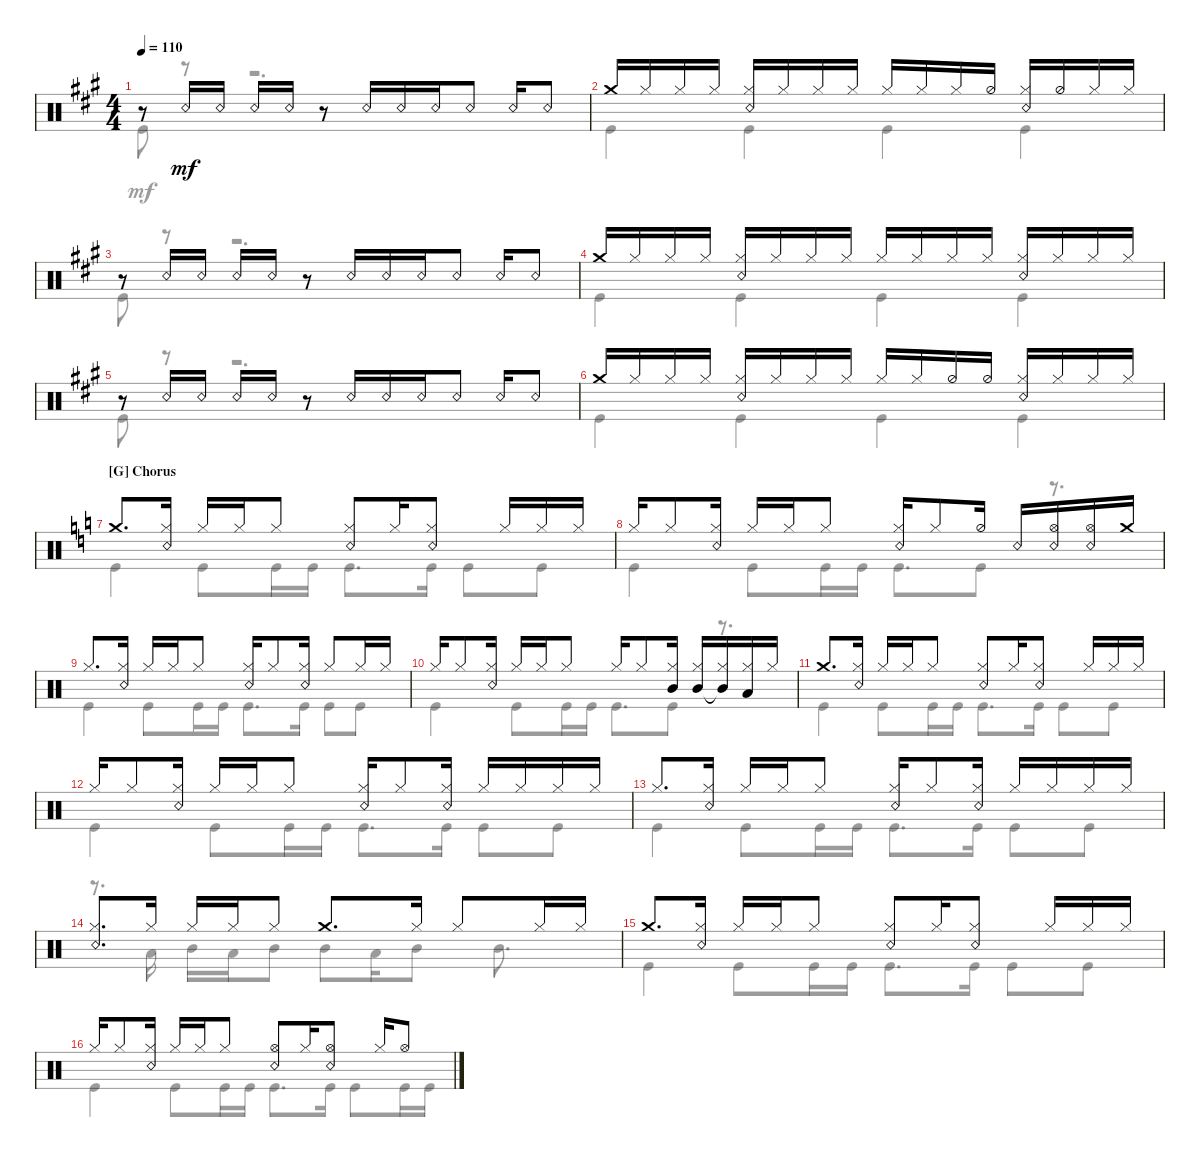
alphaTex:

\defaultSystemsLayout 4
\bracketExtendMode groupsimilarinstruments
\singleTrackTrackNamePolicy hidden
\multiTrackTrackNamePolicy hidden
\firstSystemTrackNameOrientation horizontal
\otherSystemsTrackNameOrientation horizontal
\track ("Максим Удалов" "Drums") {instrument percussion}
\staff {score}
\articulation defaults
\voice
\ts (4 4)
\tempo 110
\clef neutral
\scale
1.02648
\ks a
r.8{dy mf} "Snare (rim shot)".16 "Snare (rim shot)".16 "Snare (rim shot)".16 "Snare (rim shot)".16 r.8 "Snare (rim shot)".16 "Snare (rim shot)".16 "Snare (rim shot)".16 "Snare (rim shot)".8 "Snare (rim shot)".16 "Snare (rim shot)".8 |
\scale
0.973518 "Crash medium (hit)".16 "Hi-Hat (closed)".16 "Hi-Hat (closed)".16 "Hi-Hat (closed)".16 ("Hi-Hat (closed)" "Snare (rim shot)").16 "Hi-Hat (closed)".16 "Hi-Hat (closed)".16 "Hi-Hat (closed)".16 "Hi-Hat (closed)".16 "Hi-Hat (closed)".16 "Hi-Hat (closed)".16 "Hi-Hat (half)".16 ("Hi-Hat (closed)" "Snare (rim shot)").16 "Hi-Hat (half)".16 "Hi-Hat (closed)".16 "Hi-Hat (closed)".16 |
\scale
1.02648 r.8 "Snare (rim shot)".16 "Snare (rim shot)".16 "Snare (rim shot)".16 "Snare (rim shot)".16 r.8 "Snare (rim shot)".16 "Snare (rim shot)".16 "Snare (rim shot)".16 "Snare (rim shot)".8 "Snare (rim shot)".16 "Snare (rim shot)".8 |
\scale
0.973518 "Crash medium (hit)".16 "Hi-Hat (closed)".16 "Hi-Hat (closed)".16 "Hi-Hat (closed)".16 ("Hi-Hat (closed)" "Snare (rim shot)").16 "Hi-Hat (closed)".16 "Hi-Hat (closed)".16 "Hi-Hat (closed)".16 "Hi-Hat (closed)".16 "Hi-Hat (closed)".16 "Hi-Hat (closed)".16 "Hi-Hat (closed)".16 ("Hi-Hat (closed)" "Snare (rim shot)").16 "Hi-Hat (closed)".16 "Hi-Hat (closed)".16 "Hi-Hat (closed)".16 |
\scale
1.02648 r.8 "Snare (rim shot)".16 "Snare (rim shot)".16 "Snare (rim shot)".16 "Snare (rim shot)".16 r.8 "Snare (rim shot)".16 "Snare (rim shot)".16 "Snare (rim shot)".16 "Snare (rim shot)".8 "Snare (rim shot)".16 "Snare (rim shot)".8 |
\scale
0.973518 "Crash medium (hit)".16 "Hi-Hat (closed)".16 "Hi-Hat (closed)".16 "Hi-Hat (closed)".16 ("Hi-Hat (closed)" "Snare (rim shot)").16 "Hi-Hat (closed)".16 "Hi-Hat (closed)".16 "Hi-Hat (closed)".16 "Hi-Hat (closed)".16 "Hi-Hat (closed)".16 "Hi-Hat (half)".16 "Hi-Hat (half)".16 ("Hi-Hat (closed)" "Snare (rim shot)").16 "Hi-Hat (closed)".16 "Hi-Hat (closed)".16 "Hi-Hat (closed)".16 |
\section ("G" "Chorus")
\scale
1.02648
\ks c "Crash medium (hit)".8{d}
("Hi-Hat (closed)" "Snare (rim shot)").16 "Hi-Hat (closed)".16 "Hi-Hat (closed)".16 "Hi-Hat (closed)".8 ("Hi-Hat (closed)" "Snare (rim shot)").8 "Hi-Hat (closed)".16 ("Hi-Hat (closed)" "Snare (rim shot)").8 "Hi-Hat (closed)".16 "Hi-Hat (closed)".16 "Hi-Hat (closed)".16 |
\scale
0.973518 "Hi-Hat (closed)".16 "Hi-Hat (closed)".8 ("Hi-Hat (closed)" "Snare (rim shot)").16 "Hi-Hat (closed)".16 "Hi-Hat (closed)".16 "Hi-Hat (closed)".8 ("Hi-Hat (closed)" "Snare (rim shot)").16 "Hi-Hat (closed)".8 "Hi-Hat (half)".16 "Snare (rim shot)".16 ("Snare (rim shot)" "Hi-Hat (open)").16 ("Snare (rim shot)" "Hi-Hat (open)").16 "Crash medium (hit)".16 |
\scale
1.02648 "Hi-Hat (closed)".8{d} ("Snare (rim shot)" "Hi-Hat (closed)").16 "Hi-Hat (closed)".16 "Hi-Hat (closed)".16 "Hi-Hat (closed)".8 ("Hi-Hat (closed)" "Snare (rim shot)").16 "Hi-Hat (closed)".8 ("Hi-Hat (closed)" "Snare (rim shot)").16 "Hi-Hat (closed)".8 "Hi-Hat (closed)".16 "Hi-Hat (closed)".16 |
\scale
0.973518 "Hi-Hat (closed)".16 "Hi-Hat (closed)".8 ("Snare (rim shot)" "Hi-Hat (closed)").16 "Hi-Hat (closed)".16 "Hi-Hat (closed)".16 "Hi-Hat (closed)".8 "Hi-Hat (closed)".16 "Hi-Hat (closed)".8 ("Hi-Hat (closed)" "Mid Tom (hit)").16 ("Hi-Hat (closed)" "Mid Tom (hit)").16 ("Hi-Hat (closed)" "Mid Tom (hit)"{t}).16 ("Hi-Hat (closed)" "Low Tom (hit)").16 "Hi-Hat (closed)".16 |
\scale
1.02648 "Crash medium (hit)".8{d} ("Hi-Hat (closed)" "Snare (rim shot)").16 "Hi-Hat (closed)".16 "Hi-Hat (closed)".16 "Hi-Hat (closed)".8 ("Hi-Hat (closed)" "Snare (rim shot)").8 "Hi-Hat (closed)".16 ("Hi-Hat (closed)" "Snare (rim shot)").8 "Hi-Hat (closed)".16 "Hi-Hat (closed)".16 "Hi-Hat (closed)".16 |
\scale
0.973518 "Hi-Hat (closed)".16 "Hi-Hat (closed)".8 ("Hi-Hat (closed)" "Snare (rim shot)").16 "Hi-Hat (closed)".16 "Hi-Hat (closed)".16 "Hi-Hat (closed)".8 ("Hi-Hat (closed)" "Snare (rim shot)").16 "Hi-Hat (closed)".8 ("Hi-Hat (closed)" "Snare (rim shot)").16 "Hi-Hat (closed)".16 "Hi-Hat (closed)".16 "Hi-Hat (closed)".16 "Hi-Hat (closed)".16 |
\scale
1.02648 "Hi-Hat (closed)".8{d} ("Snare (rim shot)" "Hi-Hat (closed)").16 "Hi-Hat (closed)".16 "Hi-Hat (closed)".16 "Hi-Hat (closed)".8 ("Hi-Hat (closed)" "Snare (rim shot)").16 "Hi-Hat (closed)".8 ("Hi-Hat (closed)" "Snare (rim shot)").16 "Hi-Hat (closed)".16 "Hi-Hat (closed)".16 "Hi-Hat (closed)".16 "Hi-Hat (closed)".16 |
\scale
0.973518 ("Hi-Hat (closed)" "Snare (rim shot)").8{d} "Hi-Hat (closed)".16 "Hi-Hat (closed)".16 "Hi-Hat (closed)".16 "Hi-Hat (closed)".8 "Crash medium (hit)".8{d} "Hi-Hat (closed)".16 "Hi-Hat (closed)".8 "Hi-Hat (closed)".16 "Hi-Hat (closed)".16 |
\scale
1.02648 "Crash medium (hit)".8{d} ("Hi-Hat (closed)" "Snare (rim shot)").16 "Hi-Hat (closed)".16 "Hi-Hat (closed)".16 "Hi-Hat (closed)".8 ("Hi-Hat (closed)" "Snare (rim shot)").8 "Hi-Hat (closed)".16 ("Hi-Hat (closed)" "Snare (rim shot)").8 "Hi-Hat (closed)".16 "Hi-Hat (closed)".16 "Hi-Hat (closed)".16 |
\scale
0.973518 "Hi-Hat (closed)".16 "Hi-Hat (closed)".8 ("Hi-Hat (closed)" "Snare (rim shot)").16 "Hi-Hat (closed)".16 "Hi-Hat (closed)".16 "Hi-Hat (closed)".8 ("Snare (rim shot)" "Hi-Hat (open)").8 "Hi-Hat (closed)".16 ("Snare (rim shot)" "Hi-Hat (open)").8 "Hi-Hat (closed)".16 "Hi-Hat (open)".8
\voice
\clef neutral
\ottava regular
\simile none
\scale
1.02648
\ks a "Kick (hit)".8{dy mf}
r.8 r.2{d} |
\scale
0.973518 "Kick (hit)".4 "Kick (hit)".4 "Kick (hit)".4 "Kick (hit)".4 |
\scale
1.02648 "Kick (hit)".8 r.8 r.2{d} |
\scale
0.973518 "Kick (hit)".4 "Kick (hit)".4 "Kick (hit)".4 "Kick (hit)".4 |
\scale
1.02648 "Kick (hit)".8 r.8 r.2{d} |
\scale
0.973518 "Kick (hit)".4 "Kick (hit)".4 "Kick (hit)".4 "Kick (hit)".4 |
\scale
1.02648
\ks c "Kick (hit)".4 "Kick (hit)".8 "Kick (hit)".16 "Kick (hit)".16 "Kick (hit)".8{d} "Kick (hit)".16 "Kick (hit)".8 "Kick (hit)".8
|
\scale
0.973518 "Kick (hit)".4 "Kick (hit)".8 "Kick (hit)".16 "Kick (hit)".16 "Kick (hit)".8{d} "Kick (hit)".8 r.8{d} |
\scale
1.02648 "Kick (hit)".4 "Kick (hit)".8 "Kick (hit)".16 "Kick (hit)".16 "Kick (hit)".8{d} "Kick (hit)".16 "Kick (hit)".8 "Kick (hit)".8 |
\scale
0.973518 "Kick (hit)".4 "Kick (hit)".8 "Kick (hit)".16 "Kick (hit)".16 "Kick (hit)".8{d} "Kick (hit)".8 r.8{d} |
\scale
1.02648 "Kick (hit)".4 "Kick (hit)".8 "Kick (hit)".16 "Kick (hit)".16 "Kick (hit)".8{d} "Kick (hit)".16 "Kick (hit)".8 "Kick (hit)".8 |
\scale
0.973518 "Kick (hit)".4 "Kick (hit)".8 "Kick (hit)".16 "Kick (hit)".16 "Kick (hit)".8{d} "Kick (hit)".16 "Kick (hit)".8 "Kick (hit)".8 |
\scale
1.02648 "Kick (hit)".4 "Kick (hit)".8 "Kick (hit)".16 "Kick (hit)".16 "Kick (hit)".8{d} "Kick (hit)".16 "Kick (hit)".8 "Kick (hit)".8 |
\scale
0.973518 r.8{d} "Low Tom (hit)".16 "Mid Tom (hit)".16 "Low Tom (hit)".16 "Mid Tom (hit)".8 "Mid Tom (hit)".8 "Low Tom (hit)".16 "Mid Tom (hit)".8 "Mid Tom (hit)".8{d} |
\scale
1.02648 "Kick (hit)".4 "Kick (hit)".8 "Kick (hit)".16 "Kick (hit)".16 "Kick (hit)".8{d} "Kick (hit)".16 "Kick (hit)".8 "Kick (hit)".8 |
\scale
0.973518 "Kick (hit)".4 "Kick (hit)".8 "Kick (hit)".16 "Kick (hit)".16 "Kick (hit)".8{d} "Kick (hit)".16 "Kick (hit)".8 "Kick (hit)".16 "Kick (hit)".16
